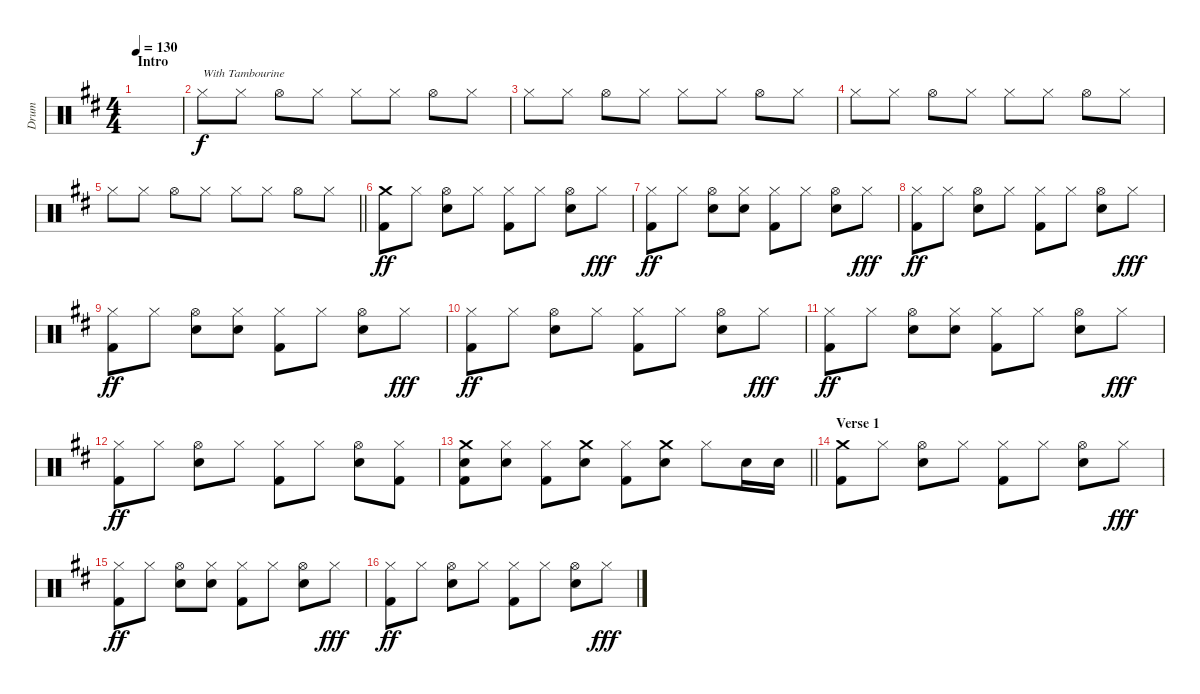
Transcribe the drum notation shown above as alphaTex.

\track ("Drum" "Drum") {instrument percussion}
\staff {score}
\articulation defaults
\ts (4 4)
\section ("" "Intro")
\tempo 130
\clef neutral
\ks d
|
"Hi-Hat (closed)".8{txt "With Tambourine"} "Hi-Hat (closed)".8 "Hi-Hat (open)".8 "Hi-Hat (closed)".8 "Hi-Hat (closed)".8 "Hi-Hat (closed)".8 "Hi-Hat (open)".8 "Hi-Hat (closed)".8 |
"Hi-Hat (closed)".8 "Hi-Hat (closed)".8 "Hi-Hat (open)".8 "Hi-Hat (closed)".8 "Hi-Hat (closed)".8 "Hi-Hat (closed)".8 "Hi-Hat (open)".8 "Hi-Hat (closed)".8 |
"Hi-Hat (closed)".8 "Hi-Hat (closed)".8 "Hi-Hat (open)".8 "Hi-Hat (closed)".8 "Hi-Hat (closed)".8 "Hi-Hat (closed)".8 "Hi-Hat (open)".8 "Hi-Hat (closed)".8 |
\barLineRight lightlight "Hi-Hat (closed)".8 "Hi-Hat (closed)".8 "Hi-Hat (open)".8 "Hi-Hat (closed)".8 "Hi-Hat (closed)".8 "Hi-Hat (closed)".8 "Hi-Hat (open)".8 "Hi-Hat (closed)".8
|
("Crash medium (hit)" "Kick (hit) 2").8{dy ff} "Hi-Hat (closed)".8 ("Hi-Hat (open)" "Electric Snare (hit)").8 "Hi-Hat (closed)".8 ("Hi-Hat (closed)" "Kick (hit) 2").8 "Hi-Hat (closed)".8 ("Hi-Hat (open)" "Electric Snare (hit)").8 "Hi-Hat (closed)".8{dy fff} |
("Hi-Hat (closed)" "Kick (hit) 2").8{dy ff} "Hi-Hat (closed)".8 ("Hi-Hat (open)" "Electric Snare (hit)").8 ("Hi-Hat (closed)" "Electric Snare (hit)").8 ("Hi-Hat (closed)" "Kick (hit) 2").8 "Hi-Hat (closed)".8 ("Hi-Hat (open)" "Electric Snare (hit)").8 "Hi-Hat (closed)".8{dy fff} |
("Hi-Hat (closed)" "Kick (hit) 2").8{dy ff} "Hi-Hat (closed)".8 ("Hi-Hat (open)" "Electric Snare (hit)").8 "Hi-Hat (closed)".8 ("Hi-Hat (closed)" "Kick (hit) 2").8 "Hi-Hat (closed)".8 ("Hi-Hat (open)" "Electric Snare (hit)").8 "Hi-Hat (closed)".8{dy fff} |
("Hi-Hat (closed)" "Kick (hit) 2").8{dy ff} "Hi-Hat (closed)".8 ("Hi-Hat (open)" "Electric Snare (hit)").8 ("Hi-Hat (closed)" "Electric Snare (hit)").8 ("Hi-Hat (closed)" "Kick (hit) 2").8 "Hi-Hat (closed)".8 ("Hi-Hat (open)" "Electric Snare (hit)").8 "Hi-Hat (closed)".8{dy fff} |
("Hi-Hat (closed)" "Kick (hit) 2").8{dy ff} "Hi-Hat (closed)".8 ("Hi-Hat (open)" "Electric Snare (hit)").8 "Hi-Hat (closed)".8 ("Hi-Hat (closed)" "Kick (hit) 2").8 "Hi-Hat (closed)".8 ("Hi-Hat (open)" "Electric Snare (hit)").8 "Hi-Hat (closed)".8{dy fff} |
("Hi-Hat (closed)" "Kick (hit) 2").8{dy ff} "Hi-Hat (closed)".8 ("Hi-Hat (open)" "Electric Snare (hit)").8 ("Hi-Hat (closed)" "Electric Snare (hit)").8 ("Hi-Hat (closed)" "Kick (hit) 2").8 "Hi-Hat (closed)".8 ("Hi-Hat (open)" "Electric Snare (hit)").8 "Hi-Hat (closed)".8{dy fff} |
("Hi-Hat (closed)" "Kick (hit) 2").8{dy ff} "Hi-Hat (closed)".8 ("Hi-Hat (open)" "Electric Snare (hit)").8 "Hi-Hat (closed)".8 ("Hi-Hat (closed)" "Kick (hit) 2").8 "Hi-Hat (closed)".8 ("Hi-Hat (open)" "Electric Snare (hit)").8 ("Hi-Hat (closed)" "Kick (hit) 2").8 |
\barLineRight lightlight
("Crash medium (hit)" "Electric Snare (hit)" "Kick (hit) 2").8 ("Hi-Hat (closed)" "Electric Snare (hit)").8 ("Hi-Hat (closed)" "Kick (hit) 2").8 ("Crash medium (hit)" "Electric Snare (hit)").8 ("Hi-Hat (closed)" "Kick (hit) 2").8 ("Crash medium (hit)" "Electric Snare (hit)").8 "Hi-Hat (closed)".8 "Electric Snare (hit)".16 "Electric Snare (hit)".16 |
\section ("" "Verse 1")
("Crash medium (hit)" "Kick (hit) 2").8 "Hi-Hat (closed)".8 ("Hi-Hat (open)" "Electric Snare (hit)").8 "Hi-Hat (closed)".8 ("Hi-Hat (closed)" "Kick (hit) 2").8 "Hi-Hat (closed)".8 ("Hi-Hat (open)" "Electric Snare (hit)").8 "Hi-Hat (closed)".8{dy fff} |
("Hi-Hat (closed)" "Kick (hit) 2").8{dy ff} "Hi-Hat (closed)".8 ("Hi-Hat (open)" "Electric Snare (hit)").8 ("Hi-Hat (closed)" "Electric Snare (hit)").8 ("Hi-Hat (closed)" "Kick (hit) 2").8 "Hi-Hat (closed)".8 ("Hi-Hat (open)" "Electric Snare (hit)").8 "Hi-Hat (closed)".8{dy fff} |
("Hi-Hat (closed)" "Kick (hit) 2").8{dy ff} "Hi-Hat (closed)".8 ("Hi-Hat (open)" "Electric Snare (hit)").8 "Hi-Hat (closed)".8 ("Hi-Hat (closed)" "Kick (hit) 2").8 "Hi-Hat (closed)".8 ("Hi-Hat (open)" "Electric Snare (hit)").8 "Hi-Hat (closed)".8{dy fff}
